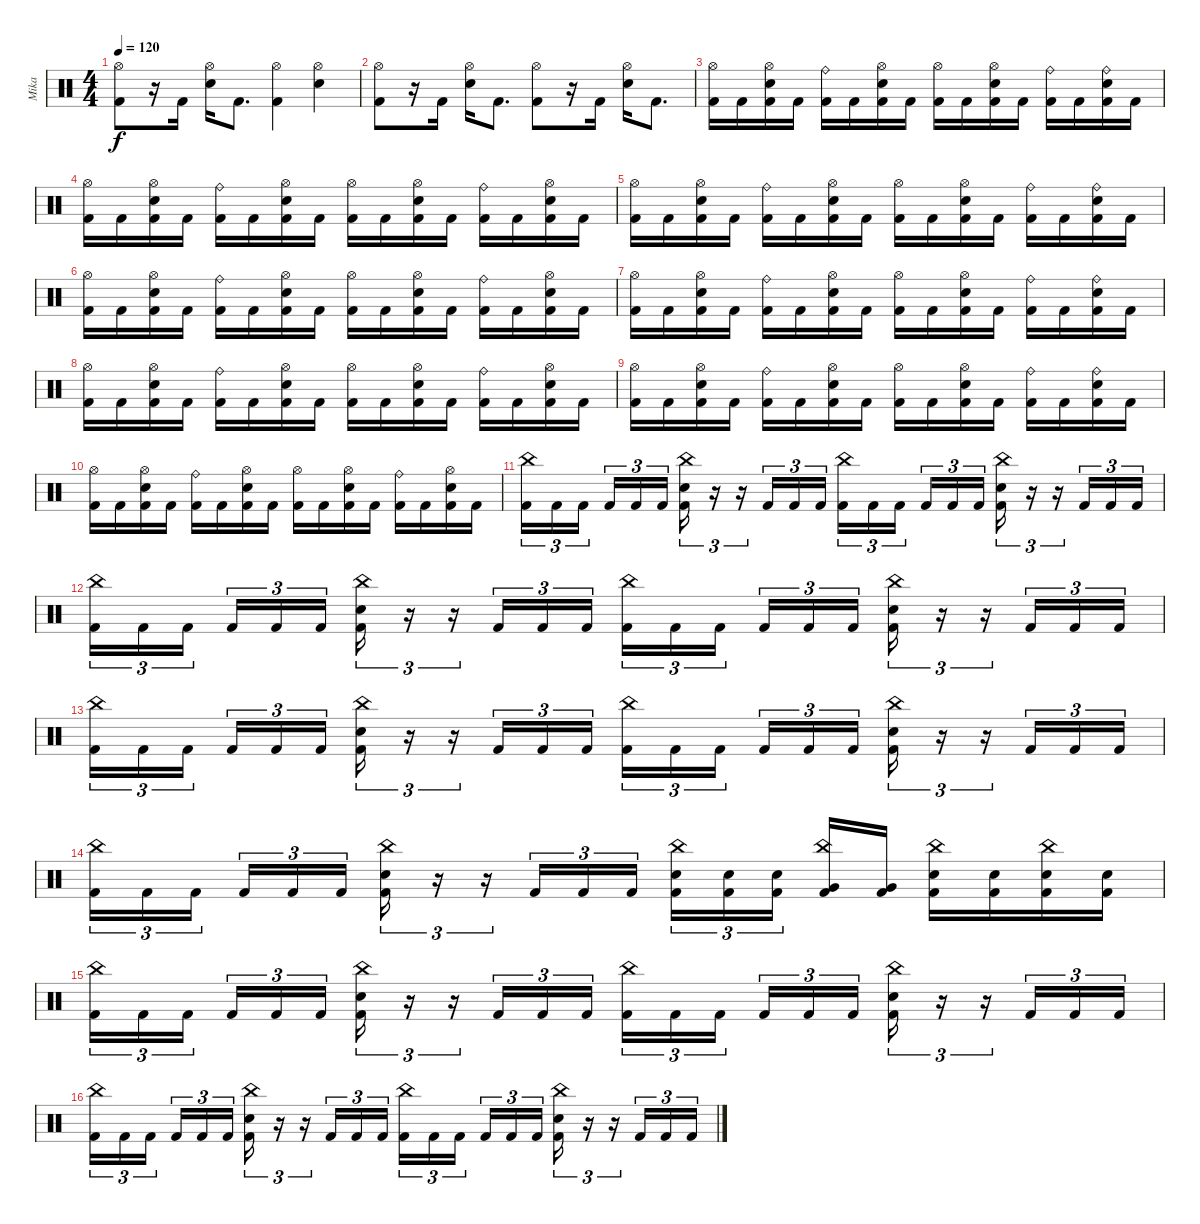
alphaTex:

\track ("Mika" "Mika") {instrument percussion}
\staff {score}
\articulation defaults
\ts (4 4)
\tempo 120
\clef neutral
\ks c
("Hi-Hat (open)" "Kick (hit) 2").8{dy f} r.16 "Kick (hit) 2".16 ("Hi-Hat (open)" "Electric Snare (hit)").16 "Kick (hit) 2".8{d} ("Hi-Hat (open)" "Kick (hit) 2").4 ("Hi-Hat (open)" "Electric Snare (hit)").4 |
("Hi-Hat (open)" "Kick (hit) 2").8 r.16 "Kick (hit) 2".16 ("Hi-Hat (open)" "Electric Snare (hit)").16 "Kick (hit) 2".8{d} ("Hi-Hat (open)" "Kick (hit) 2").8 r.16 "Kick (hit) 2".16 ("Hi-Hat (open)" "Electric Snare (hit)").16 "Kick (hit) 2".8{d} |
("Hi-Hat (open)" "Kick (hit) 2").16 "Kick (hit) 2".16 ("Hi-Hat (open)" "Electric Snare (hit)" "Kick (hit) 2").16 "Kick (hit) 2".16 ("Ride (bell)" "Kick (hit) 2").16 "Kick (hit) 2".16 ("Hi-Hat (open)" "Electric Snare (hit)" "Kick (hit) 2").16 "Kick (hit) 2".16 ("Hi-Hat (open)" "Kick (hit) 2").16 "Kick (hit) 2".16 ("Hi-Hat (open)" "Electric Snare (hit)" "Kick (hit) 2").16 "Kick (hit) 2".16 ("Ride (bell)" "Kick (hit) 2").16 "Kick (hit) 2".16 ("Ride (bell)" "Electric Snare (hit)" "Kick (hit) 2").16 "Kick (hit) 2".16 |
("Hi-Hat (open)" "Kick (hit) 2").16 "Kick (hit) 2".16 ("Hi-Hat (open)" "Electric Snare (hit)" "Kick (hit) 2").16 "Kick (hit) 2".16 ("Ride (bell)" "Kick (hit) 2").16 "Kick (hit) 2".16 ("Hi-Hat (open)" "Electric Snare (hit)" "Kick (hit) 2").16 "Kick (hit) 2".16 ("Hi-Hat (open)" "Kick (hit) 2").16 "Kick (hit) 2".16 ("Hi-Hat (open)" "Electric Snare (hit)" "Kick (hit) 2").16 "Kick (hit) 2".16 ("Ride (bell)" "Kick (hit) 2").16 "Kick (hit) 2".16 ("Hi-Hat (open)" "Electric Snare (hit)" "Kick (hit) 2").16 "Kick (hit) 2".16 |
("Hi-Hat (open)" "Kick (hit) 2").16 "Kick (hit) 2".16 ("Hi-Hat (open)" "Electric Snare (hit)" "Kick (hit) 2").16 "Kick (hit) 2".16 ("Ride (bell)" "Kick (hit) 2").16 "Kick (hit) 2".16 ("Hi-Hat (open)" "Electric Snare (hit)" "Kick (hit) 2").16 "Kick (hit) 2".16 ("Hi-Hat (open)" "Kick (hit) 2").16 "Kick (hit) 2".16 ("Hi-Hat (open)" "Electric Snare (hit)" "Kick (hit) 2").16 "Kick (hit) 2".16 ("Ride (bell)" "Kick (hit) 2").16 "Kick (hit) 2".16 ("Ride (bell)" "Electric Snare (hit)" "Kick (hit) 2").16 "Kick (hit) 2".16 |
("Hi-Hat (open)" "Kick (hit) 2").16 "Kick (hit) 2".16 ("Hi-Hat (open)" "Electric Snare (hit)" "Kick (hit) 2").16 "Kick (hit) 2".16 ("Ride (bell)" "Kick (hit) 2").16 "Kick (hit) 2".16 ("Hi-Hat (open)" "Electric Snare (hit)" "Kick (hit) 2").16 "Kick (hit) 2".16 ("Hi-Hat (open)" "Kick (hit) 2").16 "Kick (hit) 2".16 ("Hi-Hat (open)" "Electric Snare (hit)" "Kick (hit) 2").16 "Kick (hit) 2".16 ("Ride (bell)" "Kick (hit) 2").16 "Kick (hit) 2".16 ("Hi-Hat (open)" "Electric Snare (hit)" "Kick (hit) 2").16 "Kick (hit) 2".16 |
("Hi-Hat (open)" "Kick (hit) 2").16 "Kick (hit) 2".16 ("Hi-Hat (open)" "Electric Snare (hit)" "Kick (hit) 2").16 "Kick (hit) 2".16 ("Ride (bell)" "Kick (hit) 2").16 "Kick (hit) 2".16 ("Hi-Hat (open)" "Electric Snare (hit)" "Kick (hit) 2").16 "Kick (hit) 2".16 ("Hi-Hat (open)" "Kick (hit) 2").16 "Kick (hit) 2".16 ("Hi-Hat (open)" "Electric Snare (hit)" "Kick (hit) 2").16 "Kick (hit) 2".16 ("Ride (bell)" "Kick (hit) 2").16 "Kick (hit) 2".16 ("Ride (bell)" "Electric Snare (hit)" "Kick (hit) 2").16 "Kick (hit) 2".16 |
("Hi-Hat (open)" "Kick (hit) 2").16 "Kick (hit) 2".16 ("Hi-Hat (open)" "Electric Snare (hit)" "Kick (hit) 2").16 "Kick (hit) 2".16 ("Ride (bell)" "Kick (hit) 2").16 "Kick (hit) 2".16 ("Hi-Hat (open)" "Electric Snare (hit)" "Kick (hit) 2").16 "Kick (hit) 2".16 ("Hi-Hat (open)" "Kick (hit) 2").16 "Kick (hit) 2".16 ("Hi-Hat (open)" "Electric Snare (hit)" "Kick (hit) 2").16 "Kick (hit) 2".16 ("Ride (bell)" "Kick (hit) 2").16 "Kick (hit) 2".16 ("Hi-Hat (open)" "Electric Snare (hit)" "Kick (hit) 2").16 "Kick (hit) 2".16 |
("Hi-Hat (open)" "Kick (hit) 2").16 "Kick (hit) 2".16 ("Hi-Hat (open)" "Electric Snare (hit)" "Kick (hit) 2").16 "Kick (hit) 2".16 ("Ride (bell)" "Kick (hit) 2").16 "Kick (hit) 2".16 ("Hi-Hat (open)" "Electric Snare (hit)" "Kick (hit) 2").16 "Kick (hit) 2".16 ("Hi-Hat (open)" "Kick (hit) 2").16 "Kick (hit) 2".16 ("Hi-Hat (open)" "Electric Snare (hit)" "Kick (hit) 2").16 "Kick (hit) 2".16 ("Ride (bell)" "Kick (hit) 2").16 "Kick (hit) 2".16 ("Ride (bell)" "Electric Snare (hit)" "Kick (hit) 2").16 "Kick (hit) 2".16 |
("Hi-Hat (open)" "Kick (hit) 2").16 "Kick (hit) 2".16 ("Hi-Hat (open)" "Electric Snare (hit)" "Kick (hit) 2").16 "Kick (hit) 2".16 ("Ride (bell)" "Kick (hit) 2").16 "Kick (hit) 2".16 ("Hi-Hat (open)" "Electric Snare (hit)" "Kick (hit) 2").16 "Kick (hit) 2".16 ("Hi-Hat (open)" "Kick (hit) 2").16 "Kick (hit) 2".16 ("Hi-Hat (open)" "Electric Snare (hit)" "Kick (hit) 2").16 "Kick (hit) 2".16 ("Ride (bell)" "Kick (hit) 2").16 "Kick (hit) 2".16 ("Hi-Hat (open)" "Electric Snare (hit)" "Kick (hit) 2").16 "Kick (hit) 2".16 |
("China (hit)" "Kick (hit) 2").16{tu (3 2)} "Kick (hit) 2".16{tu (3 2)} "Kick (hit) 2".16{tu (3 2) beam splitsecondary} "Kick (hit) 2".16{tu (3 2)} "Kick (hit) 2".16{tu (3 2)} "Kick (hit) 2".16{tu (3 2)} ("China (hit)" "Electric Snare (hit)" "Kick (hit) 2").16{tu (3 2)} r.16{tu (3 2)} r.16{tu (3 2)} "Kick (hit) 2".16{tu (3 2)} "Kick (hit) 2".16{tu (3 2)} "Kick (hit) 2".16{tu (3 2)} ("China (hit)" "Kick (hit) 2").16{tu (3 2)} "Kick (hit) 2".16{tu (3 2)} "Kick (hit) 2".16{tu (3 2) beam splitsecondary} "Kick (hit) 2".16{tu (3 2)} "Kick (hit) 2".16{tu (3 2)} "Kick (hit) 2".16{tu (3 2)} ("China (hit)" "Electric Snare (hit)" "Kick (hit) 2").16{tu (3 2)} r.16{tu (3 2)} r.16{tu (3 2)} "Kick (hit) 2".16{tu (3 2)} "Kick (hit) 2".16{tu (3 2)} "Kick (hit) 2".16{tu (3 2)} |
("China (hit)" "Kick (hit) 2").16{tu (3 2)} "Kick (hit) 2".16{tu (3 2)} "Kick (hit) 2".16{tu (3 2) beam splitsecondary} "Kick (hit) 2".16{tu (3 2)} "Kick (hit) 2".16{tu (3 2)} "Kick (hit) 2".16{tu (3 2)} ("China (hit)" "Electric Snare (hit)" "Kick (hit) 2").16{tu (3 2)} r.16{tu (3 2)} r.16{tu (3 2)} "Kick (hit) 2".16{tu (3 2)} "Kick (hit) 2".16{tu (3 2)} "Kick (hit) 2".16{tu (3 2)} ("China (hit)" "Kick (hit) 2").16{tu (3 2)} "Kick (hit) 2".16{tu (3 2)} "Kick (hit) 2".16{tu (3 2) beam splitsecondary} "Kick (hit) 2".16{tu (3 2)} "Kick (hit) 2".16{tu (3 2)} "Kick (hit) 2".16{tu (3 2)} ("China (hit)" "Electric Snare (hit)" "Kick (hit) 2").16{tu (3 2)} r.16{tu (3 2)} r.16{tu (3 2)} "Kick (hit) 2".16{tu (3 2)} "Kick (hit) 2".16{tu (3 2)} "Kick (hit) 2".16{tu (3 2)} |
("China (hit)" "Kick (hit) 2").16{tu (3 2)} "Kick (hit) 2".16{tu (3 2)} "Kick (hit) 2".16{tu (3 2) beam splitsecondary} "Kick (hit) 2".16{tu (3 2)} "Kick (hit) 2".16{tu (3 2)} "Kick (hit) 2".16{tu (3 2)} ("China (hit)" "Electric Snare (hit)" "Kick (hit) 2").16{tu (3 2)} r.16{tu (3 2)} r.16{tu (3 2)} "Kick (hit) 2".16{tu (3 2)} "Kick (hit) 2".16{tu (3 2)} "Kick (hit) 2".16{tu (3 2)} ("China (hit)" "Kick (hit) 2").16{tu (3 2)} "Kick (hit) 2".16{tu (3 2)} "Kick (hit) 2".16{tu (3 2) beam splitsecondary} "Kick (hit) 2".16{tu (3 2)} "Kick (hit) 2".16{tu (3 2)} "Kick (hit) 2".16{tu (3 2)} ("China (hit)" "Electric Snare (hit)" "Kick (hit) 2").16{tu (3 2)} r.16{tu (3 2)} r.16{tu (3 2)} "Kick (hit) 2".16{tu (3 2)} "Kick (hit) 2".16{tu (3 2)} "Kick (hit) 2".16{tu (3 2)} |
("China (hit)" "Kick (hit) 2").16{tu (3 2)} "Kick (hit) 2".16{tu (3 2)} "Kick (hit) 2".16{tu (3 2) beam splitsecondary} "Kick (hit) 2".16{tu (3 2)} "Kick (hit) 2".16{tu (3 2)} "Kick (hit) 2".16{tu (3 2)} ("China (hit)" "Electric Snare (hit)" "Kick (hit) 2").16{tu (3 2)} r.16{tu (3 2)} r.16{tu (3 2)} "Kick (hit) 2".16{tu (3 2)} "Kick (hit) 2".16{tu (3 2)} "Kick (hit) 2".16{tu (3 2)} ("China (hit)" "Electric Snare (hit)" "Kick (hit) 2").16{tu (3 2)} ("Electric Snare (hit)" "Kick (hit) 2").16{tu (3 2)} ("Electric Snare (hit)" "Kick (hit) 2").16{tu (3 2) beam splitsecondary} ("China (hit)" "Very Low Tom (hit)" "Kick (hit) 2").16 ("Very Low Tom (hit)" "Kick (hit) 2").16 ("China (hit)" "Electric Snare (hit)" "Kick (hit) 2").16 ("Electric Snare (hit)" "Kick (hit) 2").16 ("China (hit)" "Snare (hit) 2" "Kick (hit) 2").16 ("Snare (hit) 2" "Kick (hit) 2").16 |
("China (hit)" "Kick (hit) 2").16{tu (3 2)} "Kick (hit) 2".16{tu (3 2)} "Kick (hit) 2".16{tu (3 2) beam splitsecondary} "Kick (hit) 2".16{tu (3 2)} "Kick (hit) 2".16{tu (3 2)} "Kick (hit) 2".16{tu (3 2)} ("China (hit)" "Electric Snare (hit)" "Kick (hit) 2").16{tu (3 2)} r.16{tu (3 2)} r.16{tu (3 2)} "Kick (hit) 2".16{tu (3 2)} "Kick (hit) 2".16{tu (3 2)} "Kick (hit) 2".16{tu (3 2)} ("China (hit)" "Kick (hit) 2").16{tu (3 2)} "Kick (hit) 2".16{tu (3 2)} "Kick (hit) 2".16{tu (3 2) beam splitsecondary} "Kick (hit) 2".16{tu (3 2)} "Kick (hit) 2".16{tu (3 2)} "Kick (hit) 2".16{tu (3 2)} ("China (hit)" "Electric Snare (hit)" "Kick (hit) 2").16{tu (3 2)} r.16{tu (3 2)} r.16{tu (3 2)} "Kick (hit) 2".16{tu (3 2)} "Kick (hit) 2".16{tu (3 2)} "Kick (hit) 2".16{tu (3 2)} |
("China (hit)" "Kick (hit) 2").16{tu (3 2)} "Kick (hit) 2".16{tu (3 2)} "Kick (hit) 2".16{tu (3 2) beam splitsecondary} "Kick (hit) 2".16{tu (3 2)} "Kick (hit) 2".16{tu (3 2)} "Kick (hit) 2".16{tu (3 2)} ("China (hit)" "Electric Snare (hit)" "Kick (hit) 2").16{tu (3 2)} r.16{tu (3 2)} r.16{tu (3 2)} "Kick (hit) 2".16{tu (3 2)} "Kick (hit) 2".16{tu (3 2)} "Kick (hit) 2".16{tu (3 2)} ("China (hit)" "Kick (hit) 2").16{tu (3 2)} "Kick (hit) 2".16{tu (3 2)} "Kick (hit) 2".16{tu (3 2) beam splitsecondary} "Kick (hit) 2".16{tu (3 2)} "Kick (hit) 2".16{tu (3 2)} "Kick (hit) 2".16{tu (3 2)} ("China (hit)" "Electric Snare (hit)" "Kick (hit) 2").16{tu (3 2)} r.16{tu (3 2)} r.16{tu (3 2)} "Kick (hit) 2".16{tu (3 2)} "Kick (hit) 2".16{tu (3 2)} "Kick (hit) 2".16{tu (3 2)}
